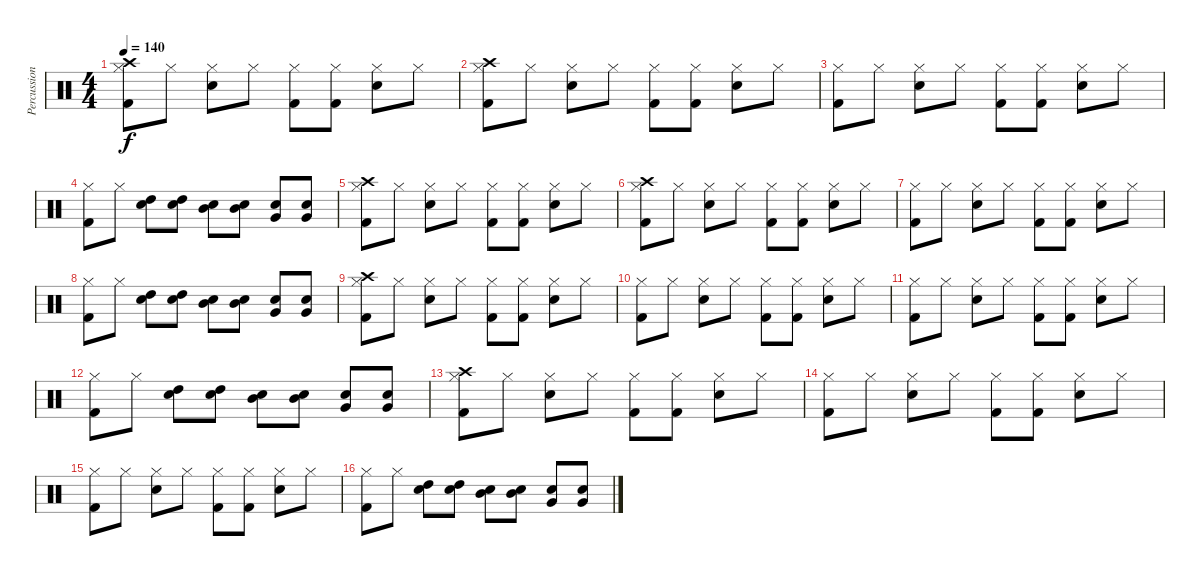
\track ("Percussion" "Percussion") {instrument percussion}
\staff {score}
\articulation defaults
\ts (4 4)
\tempo 140
\clef neutral
\ks c
("Kick (hit) 2" "Hi-Hat (closed)" "Crash high (hit)").8{dy f} "Hi-Hat (closed)".8 ("Electric Snare (hit)" "Hi-Hat (closed)").8 "Hi-Hat (closed)".8 ("Kick (hit) 2" "Hi-Hat (closed)").8 ("Kick (hit) 2" "Hi-Hat (closed)").8 ("Electric Snare (hit)" "Hi-Hat (closed)").8 "Hi-Hat (closed)".8 |
("Kick (hit) 2" "Hi-Hat (closed)" "Crash high (hit)").8 "Hi-Hat (closed)".8 ("Electric Snare (hit)" "Hi-Hat (closed)").8 "Hi-Hat (closed)".8 ("Kick (hit) 2" "Hi-Hat (closed)").8 ("Kick (hit) 2" "Hi-Hat (closed)").8 ("Electric Snare (hit)" "Hi-Hat (closed)").8 "Hi-Hat (closed)".8 |
("Kick (hit) 2" "Hi-Hat (closed)").8 "Hi-Hat (closed)".8 ("Electric Snare (hit)" "Hi-Hat (closed)").8 "Hi-Hat (closed)".8 ("Kick (hit) 2" "Hi-Hat (closed)").8 ("Kick (hit) 2" "Hi-Hat (closed)").8 ("Electric Snare (hit)" "Hi-Hat (closed)").8 "Hi-Hat (closed)".8 |
("Kick (hit) 2" "Hi-Hat (closed)").8 "Hi-Hat (closed)".8 ("Electric Snare (hit)" "High Tom (hit)").8 ("Electric Snare (hit)" "High Tom (hit)").8 ("Electric Snare (hit)" "Mid Tom (hit)").8 ("Electric Snare (hit)" "Mid Tom (hit)").8 ("Electric Snare (hit)" "Very Low Tom (hit)").8 ("Electric Snare (hit)" "Very Low Tom (hit)").8 |
("Kick (hit) 2" "Hi-Hat (closed)" "Crash high (hit)").8 "Hi-Hat (closed)".8 ("Electric Snare (hit)" "Hi-Hat (closed)").8 "Hi-Hat (closed)".8 ("Kick (hit) 2" "Hi-Hat (closed)").8 ("Kick (hit) 2" "Hi-Hat (closed)").8 ("Electric Snare (hit)" "Hi-Hat (closed)").8 "Hi-Hat (closed)".8 |
("Kick (hit) 2" "Hi-Hat (closed)" "Crash high (hit)").8 "Hi-Hat (closed)".8 ("Electric Snare (hit)" "Hi-Hat (closed)").8 "Hi-Hat (closed)".8 ("Kick (hit) 2" "Hi-Hat (closed)").8 ("Kick (hit) 2" "Hi-Hat (closed)").8 ("Electric Snare (hit)" "Hi-Hat (closed)").8 "Hi-Hat (closed)".8 |
("Kick (hit) 2" "Hi-Hat (closed)").8 "Hi-Hat (closed)".8 ("Electric Snare (hit)" "Hi-Hat (closed)").8 "Hi-Hat (closed)".8 ("Kick (hit) 2" "Hi-Hat (closed)").8 ("Kick (hit) 2" "Hi-Hat (closed)").8 ("Electric Snare (hit)" "Hi-Hat (closed)").8 "Hi-Hat (closed)".8 |
("Kick (hit) 2" "Hi-Hat (closed)").8 "Hi-Hat (closed)".8 ("Electric Snare (hit)" "High Tom (hit)").8 ("Electric Snare (hit)" "High Tom (hit)").8 ("Electric Snare (hit)" "Mid Tom (hit)").8 ("Electric Snare (hit)" "Mid Tom (hit)").8 ("Electric Snare (hit)" "Very Low Tom (hit)").8 ("Electric Snare (hit)" "Very Low Tom (hit)").8 |
("Kick (hit) 2" "Hi-Hat (closed)" "Crash high (hit)").8 "Hi-Hat (closed)".8 ("Electric Snare (hit)" "Hi-Hat (closed)").8 "Hi-Hat (closed)".8 ("Kick (hit) 2" "Hi-Hat (closed)").8 ("Kick (hit) 2" "Hi-Hat (closed)").8 ("Electric Snare (hit)" "Hi-Hat (closed)").8 "Hi-Hat (closed)".8 |
("Kick (hit) 2" "Hi-Hat (closed)").8 "Hi-Hat (closed)".8 ("Electric Snare (hit)" "Hi-Hat (closed)").8 "Hi-Hat (closed)".8 ("Kick (hit) 2" "Hi-Hat (closed)").8 ("Kick (hit) 2" "Hi-Hat (closed)").8 ("Electric Snare (hit)" "Hi-Hat (closed)").8 "Hi-Hat (closed)".8 |
("Kick (hit) 2" "Hi-Hat (closed)").8 "Hi-Hat (closed)".8 ("Electric Snare (hit)" "Hi-Hat (closed)").8 "Hi-Hat (closed)".8 ("Kick (hit) 2" "Hi-Hat (closed)").8 ("Kick (hit) 2" "Hi-Hat (closed)").8 ("Electric Snare (hit)" "Hi-Hat (closed)").8 "Hi-Hat (closed)".8 |
("Kick (hit) 2" "Hi-Hat (closed)").8 "Hi-Hat (closed)".8 ("Electric Snare (hit)" "High Tom (hit)").8 ("Electric Snare (hit)" "High Tom (hit)").8 ("Electric Snare (hit)" "Mid Tom (hit)").8 ("Electric Snare (hit)" "Mid Tom (hit)").8 ("Electric Snare (hit)" "Very Low Tom (hit)").8 ("Electric Snare (hit)" "Very Low Tom (hit)").8 |
("Kick (hit) 2" "Hi-Hat (closed)" "Crash high (hit)").8 "Hi-Hat (closed)".8 ("Electric Snare (hit)" "Hi-Hat (closed)").8 "Hi-Hat (closed)".8 ("Kick (hit) 2" "Hi-Hat (closed)").8 ("Kick (hit) 2" "Hi-Hat (closed)").8 ("Electric Snare (hit)" "Hi-Hat (closed)").8 "Hi-Hat (closed)".8 |
("Kick (hit) 2" "Hi-Hat (closed)").8 "Hi-Hat (closed)".8 ("Electric Snare (hit)" "Hi-Hat (closed)").8 "Hi-Hat (closed)".8 ("Kick (hit) 2" "Hi-Hat (closed)").8 ("Kick (hit) 2" "Hi-Hat (closed)").8 ("Electric Snare (hit)" "Hi-Hat (closed)").8 "Hi-Hat (closed)".8 |
("Kick (hit) 2" "Hi-Hat (closed)").8 "Hi-Hat (closed)".8 ("Electric Snare (hit)" "Hi-Hat (closed)").8 "Hi-Hat (closed)".8 ("Kick (hit) 2" "Hi-Hat (closed)").8 ("Kick (hit) 2" "Hi-Hat (closed)").8 ("Electric Snare (hit)" "Hi-Hat (closed)").8 "Hi-Hat (closed)".8 |
("Kick (hit) 2" "Hi-Hat (closed)").8 "Hi-Hat (closed)".8 ("Electric Snare (hit)" "High Tom (hit)").8 ("Electric Snare (hit)" "High Tom (hit)").8 ("Electric Snare (hit)" "Mid Tom (hit)").8 ("Electric Snare (hit)" "Mid Tom (hit)").8 ("Electric Snare (hit)" "Very Low Tom (hit)").8 ("Electric Snare (hit)" "Very Low Tom (hit)").8
